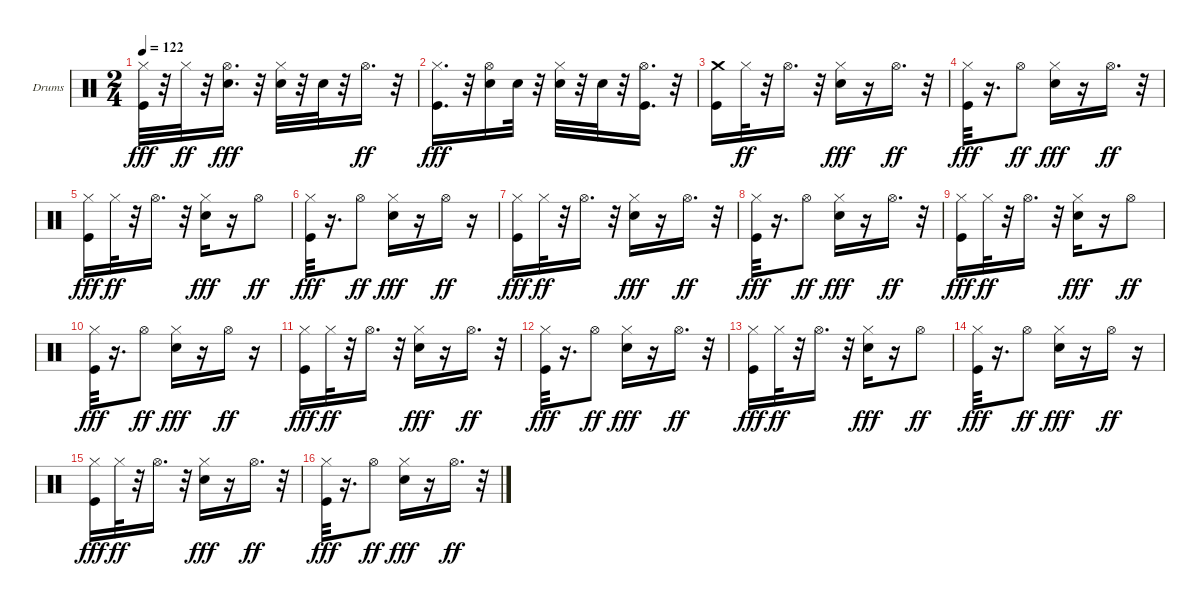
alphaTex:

\bracketExtendMode groupsimilarinstruments
\firstSystemTrackNameOrientation horizontal
\otherSystemsTrackNameOrientation horizontal
\track ("Ударные" "Drums") {instrument percussion}
\staff {score}
\articulation defaults
\ts (2 4)
\tempo 122
\clef neutral
\ks c
("Kick (hit)" "Hi-Hat (closed)").32{dy fff} r.32 "Hi-Hat (closed)".32{dy ff} r.32 ("Snare (hit) 2" "Hi-Hat (open)").16{d dy fff} r.32 ("Snare (hit) 2" "Hi-Hat (closed)").32 r.32 "Snare (hit) 2".32 r.32 "Hi-Hat (open)".16{d dy ff} r.32 |
("Kick (hit)" "Hi-Hat (closed)").16{d dy fff} r.32 ("Snare (hit) 2" "Hi-Hat (open)").16 "Snare (hit) 2".32 r.32 ("Snare (hit) 2" "Hi-Hat (closed)").32 r.32 "Snare (hit) 2".32 r.32 ("Kick (hit)" "Hi-Hat (open)").16{d} r.32 |
("Kick (hit)" "Crash medium (hit)").16 "Hi-Hat (closed)".32{dy ff} r.32 "Hi-Hat (open)".16{d} r.32 ("Snare (hit) 2" "Hi-Hat (closed)").16{dy fff} r.16 "Hi-Hat (open)".16{d dy ff} r.32 |
("Kick (hit)" "Hi-Hat (closed)").32{dy fff} r.16{d} "Hi-Hat (open)".8{dy ff} ("Snare (hit) 2" "Hi-Hat (closed)").16{dy fff} r.16 "Hi-Hat (open)".16{d dy ff} r.32 |
("Kick (hit)" "Hi-Hat (closed)").16{dy fff} "Hi-Hat (closed)".32{dy ff} r.32 "Hi-Hat (open)".16{d} r.32 ("Snare (hit) 2" "Hi-Hat (closed)").16{dy fff} r.16 "Hi-Hat (open)".8{dy ff} |
("Kick (hit)" "Hi-Hat (closed)").32{dy fff} r.16{d} "Hi-Hat (open)".8{dy ff} ("Snare (hit) 2" "Hi-Hat (closed)").16{dy fff} r.16 "Hi-Hat (open)".16{dy ff} r.16 |
("Kick (hit)" "Hi-Hat (closed)").16{dy fff} "Hi-Hat (closed)".32{dy ff} r.32 "Hi-Hat (open)".16{d} r.32 ("Snare (hit) 2" "Hi-Hat (closed)").16{dy fff} r.16 "Hi-Hat (open)".16{d dy ff} r.32 |
("Kick (hit)" "Hi-Hat (closed)").32{dy fff} r.16{d} "Hi-Hat (open)".8{dy ff} ("Snare (hit) 2" "Hi-Hat (closed)").16{dy fff} r.16 "Hi-Hat (open)".16{d dy ff} r.32 |
("Kick (hit)" "Hi-Hat (closed)").16{dy fff} "Hi-Hat (closed)".32{dy ff} r.32 "Hi-Hat (open)".16{d} r.32 ("Snare (hit) 2" "Hi-Hat (closed)").16{dy fff} r.16 "Hi-Hat (open)".8{dy ff} |
("Kick (hit)" "Hi-Hat (closed)").32{dy fff} r.16{d} "Hi-Hat (open)".8{dy ff} ("Snare (hit) 2" "Hi-Hat (closed)").16{dy fff} r.16 "Hi-Hat (open)".16{dy ff} r.16 |
("Kick (hit)" "Hi-Hat (closed)").16{dy fff} "Hi-Hat (closed)".32{dy ff} r.32 "Hi-Hat (open)".16{d} r.32 ("Snare (hit) 2" "Hi-Hat (closed)").16{dy fff} r.16 "Hi-Hat (open)".16{d dy ff} r.32 |
("Kick (hit)" "Hi-Hat (closed)").32{dy fff} r.16{d} "Hi-Hat (open)".8{dy ff} ("Snare (hit) 2" "Hi-Hat (closed)").16{dy fff} r.16 "Hi-Hat (open)".16{d dy ff} r.32 |
("Kick (hit)" "Hi-Hat (closed)").16{dy fff} "Hi-Hat (closed)".32{dy ff} r.32 "Hi-Hat (open)".16{d} r.32 ("Snare (hit) 2" "Hi-Hat (closed)").16{dy fff} r.16 "Hi-Hat (open)".8{dy ff} |
("Kick (hit)" "Hi-Hat (closed)").32{dy fff} r.16{d} "Hi-Hat (open)".8{dy ff} ("Snare (hit) 2" "Hi-Hat (closed)").16{dy fff} r.16 "Hi-Hat (open)".16{dy ff} r.16 |
("Kick (hit)" "Hi-Hat (closed)").16{dy fff} "Hi-Hat (closed)".32{dy ff} r.32 "Hi-Hat (open)".16{d} r.32 ("Snare (hit) 2" "Hi-Hat (closed)").16{dy fff} r.16 "Hi-Hat (open)".16{d dy ff} r.32 |
("Kick (hit)" "Hi-Hat (closed)").32{dy fff} r.16{d} "Hi-Hat (open)".8{dy ff} ("Snare (hit) 2" "Hi-Hat (closed)").16{dy fff} r.16 "Hi-Hat (open)".16{d dy ff} r.32
